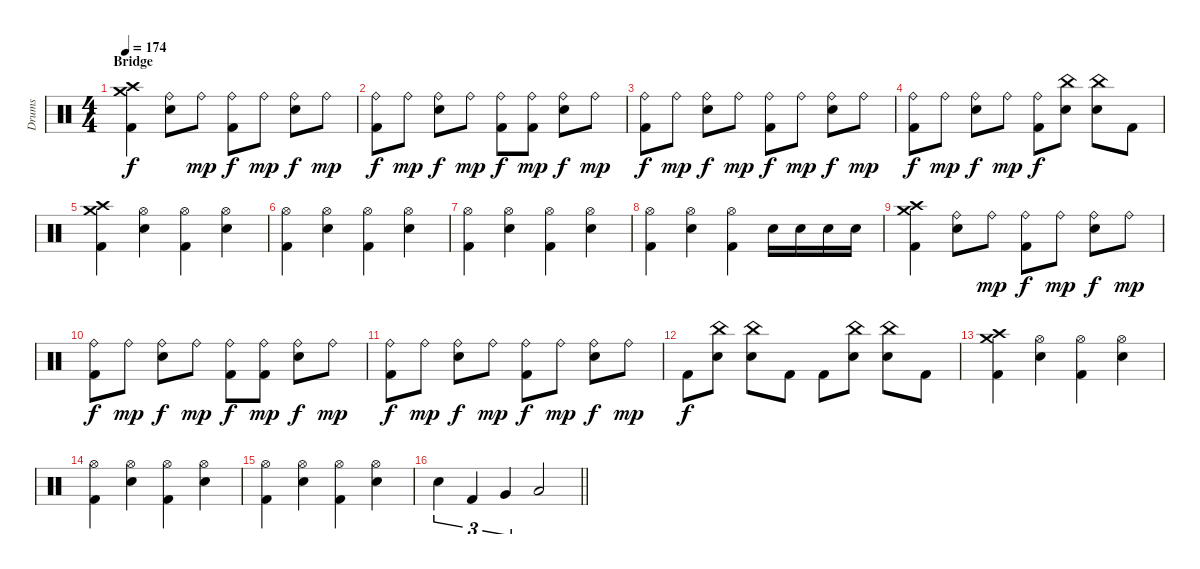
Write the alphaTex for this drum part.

\track ("Drums" "Drums") {instrument percussion}
\staff {score}
\articulation defaults
\ts (4 4)
\section ("" "Bridge")
\tempo 174
\clef neutral
\ks c
("Crash medium (hit)" "Crash high (hit)" "Kick (hit) 2").4{dy f} ("Ride (bell)" "Electric Snare (hit)").8 "Ride (bell)".8{dy mp} ("Ride (bell)" "Kick (hit) 2").8{dy f} "Ride (bell)".8{dy mp} ("Ride (bell)" "Electric Snare (hit)").8{dy f} "Ride (bell)".8{dy mp} |
("Ride (bell)" "Kick (hit) 2").8{dy f} "Ride (bell)".8{dy mp} ("Ride (bell)" "Electric Snare (hit)").8{dy f} "Ride (bell)".8{dy mp} ("Ride (bell)" "Kick (hit) 2").8{dy f} ("Ride (bell)" "Kick (hit) 2").8{dy mp} ("Ride (bell)" "Electric Snare (hit)").8{dy f} "Ride (bell)".8{dy mp} |
("Ride (bell)" "Kick (hit) 2").8{dy f} "Ride (bell)".8{dy mp} ("Ride (bell)" "Electric Snare (hit)").8{dy f} "Ride (bell)".8{dy mp} ("Ride (bell)" "Kick (hit) 2").8{dy f} "Ride (bell)".8{dy mp} ("Ride (bell)" "Electric Snare (hit)").8{dy f} "Ride (bell)".8{dy mp} |
("Ride (bell)" "Kick (hit) 2").8{dy f} "Ride (bell)".8{dy mp} ("Ride (bell)" "Electric Snare (hit)").8{dy f} "Ride (bell)".8{dy mp} ("Ride (bell)" "Kick (hit) 2").8{dy f} ("China (hit)" "Electric Snare (hit)").8 ("China (hit)" "Electric Snare (hit)").8 "Kick (hit) 2".8 |
("Crash medium (hit)" "Crash high (hit)" "Kick (hit) 2").4 ("Hi-Hat (open)" "Electric Snare (hit)").4 ("Hi-Hat (open)" "Kick (hit) 2").4 ("Hi-Hat (open)" "Electric Snare (hit)").4 |
("Hi-Hat (open)" "Kick (hit) 2").4 ("Hi-Hat (open)" "Electric Snare (hit)").4 ("Hi-Hat (open)" "Kick (hit) 2").4 ("Hi-Hat (open)" "Electric Snare (hit)").4 |
("Hi-Hat (open)" "Kick (hit) 2").4 ("Hi-Hat (open)" "Electric Snare (hit)").4 ("Hi-Hat (open)" "Kick (hit) 2").4 ("Hi-Hat (open)" "Electric Snare (hit)").4 |
("Hi-Hat (open)" "Kick (hit) 2").4 ("Hi-Hat (open)" "Electric Snare (hit)").4 ("Hi-Hat (open)" "Kick (hit) 2").4 "Electric Snare (hit)".16 "Electric Snare (hit)".16 "Electric Snare (hit)".16 "Electric Snare (hit)".16 |
("Crash medium (hit)" "Crash high (hit)" "Kick (hit) 2").4 ("Ride (bell)" "Electric Snare (hit)").8 "Ride (bell)".8{dy mp} ("Ride (bell)" "Kick (hit) 2").8{dy f} "Ride (bell)".8{dy mp} ("Ride (bell)" "Electric Snare (hit)").8{dy f} "Ride (bell)".8{dy mp} |
("Ride (bell)" "Kick (hit) 2").8{dy f} "Ride (bell)".8{dy mp} ("Ride (bell)" "Electric Snare (hit)").8{dy f} "Ride (bell)".8{dy mp} ("Ride (bell)" "Kick (hit) 2").8{dy f} ("Ride (bell)" "Kick (hit) 2").8{dy mp} ("Ride (bell)" "Electric Snare (hit)").8{dy f} "Ride (bell)".8{dy mp} |
("Ride (bell)" "Kick (hit) 2").8{dy f} "Ride (bell)".8{dy mp} ("Ride (bell)" "Electric Snare (hit)").8{dy f} "Ride (bell)".8{dy mp} ("Ride (bell)" "Kick (hit) 2").8{dy f} "Ride (bell)".8{dy mp} ("Ride (bell)" "Electric Snare (hit)").8{dy f} "Ride (bell)".8{dy mp} |
"Kick (hit) 2".8{dy f} ("China (hit)" "Electric Snare (hit)").8 ("China (hit)" "Electric Snare (hit)").8 "Kick (hit) 2".8 "Kick (hit) 2".8 ("China (hit)" "Electric Snare (hit)").8 ("China (hit)" "Electric Snare (hit)").8 "Kick (hit) 2".8 |
("Crash medium (hit)" "Crash high (hit)" "Kick (hit) 2").4 ("Hi-Hat (open)" "Electric Snare (hit)").4 ("Hi-Hat (open)" "Kick (hit) 2").4 ("Hi-Hat (open)" "Electric Snare (hit)").4 |
("Hi-Hat (open)" "Kick (hit) 2").4 ("Hi-Hat (open)" "Electric Snare (hit)").4 ("Hi-Hat (open)" "Kick (hit) 2").4 ("Hi-Hat (open)" "Electric Snare (hit)").4 |
("Hi-Hat (open)" "Kick (hit) 2").4 ("Hi-Hat (open)" "Electric Snare (hit)").4 ("Hi-Hat (open)" "Kick (hit) 2").4 ("Hi-Hat (open)" "Electric Snare (hit)").4 |
\barLineRight lightlight "Electric Snare (hit)".4{tu (3 2)} "Kick (hit) 2".4{tu (3 2)} "Very Low Tom (hit)".4{tu (3 2)} "Low Floor Tom (hit)".2
